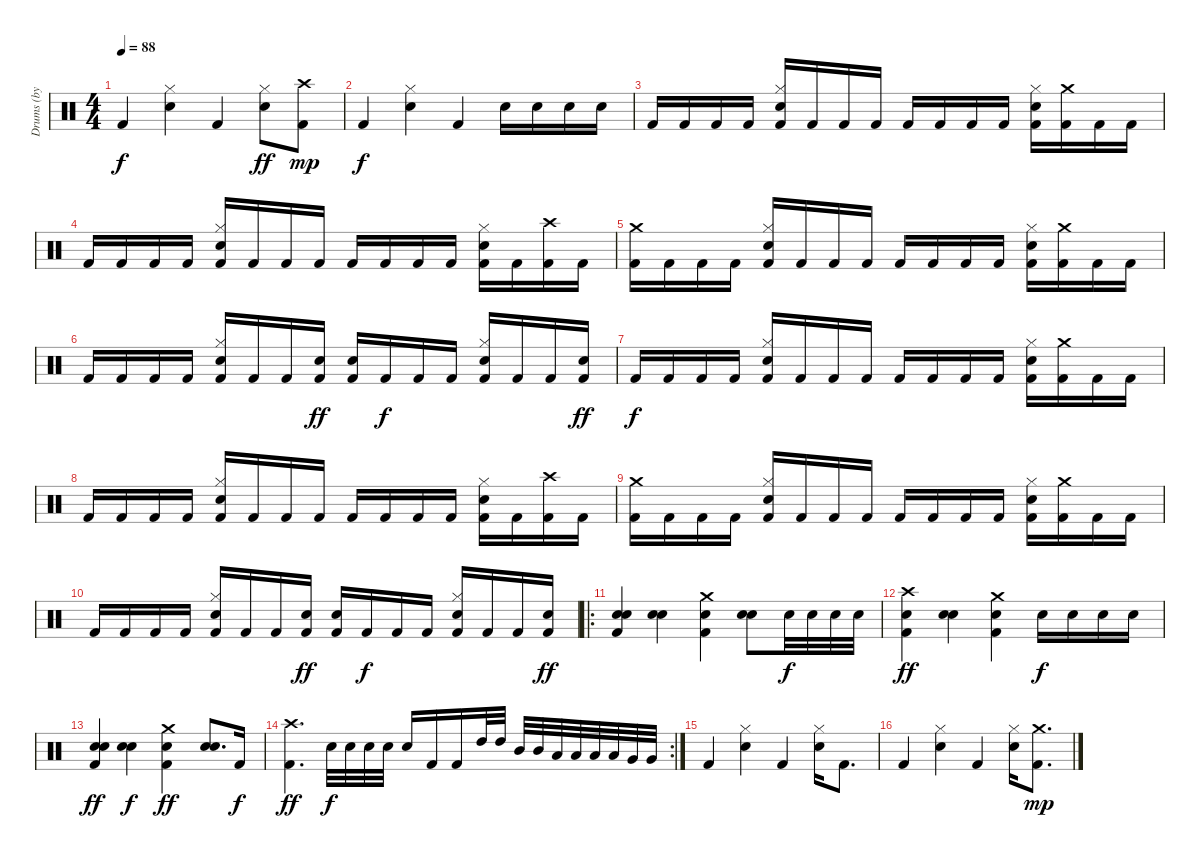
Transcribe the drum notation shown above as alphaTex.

\track ("Drums (by Rim)" "Drums (by ") {instrument percussion}
\staff {score}
\articulation defaults
\ts (4 4)
\tempo 88
\clef neutral
\ks c "Kick (hit) 2".4{dy f}
("Hi-Hat (closed)" "Snare (hit) 2").4 "Kick (hit) 2".4 ("Hi-Hat (closed)" "Snare (hit) 2").8{dy ff} ("Kick (hit) 2" "Crash high (hit)").8{dy mp} |
"Kick (hit) 2".4{dy f} ("Hi-Hat (closed)" "Snare (hit) 2").4 "Kick (hit) 2".4 "Snare (hit) 2".16 "Snare (hit) 2".16 "Snare (hit) 2".16 "Snare (hit) 2".16 |
"Kick (hit) 2".16 "Kick (hit) 2".16 "Kick (hit) 2".16 "Kick (hit) 2".16 ("Kick (hit) 2" "Hi-Hat (closed)" "Snare (hit) 2").16 "Kick (hit) 2".16 "Kick (hit) 2".16 "Kick (hit) 2".16 "Kick (hit) 2".16 "Kick (hit) 2".16 "Kick (hit) 2".16 "Kick (hit) 2".16 ("Kick (hit) 2" "Hi-Hat (closed)" "Snare (hit) 2").16 ("Kick (hit) 2" "Crash medium (hit)").16 "Kick (hit) 2".16 "Kick (hit) 2".16 |
"Kick (hit) 2".16 "Kick (hit) 2".16 "Kick (hit) 2".16 "Kick (hit) 2".16 ("Kick (hit) 2" "Hi-Hat (closed)" "Snare (hit) 2").16 "Kick (hit) 2".16 "Kick (hit) 2".16 "Kick (hit) 2".16 "Kick (hit) 2".16 "Kick (hit) 2".16 "Kick (hit) 2".16 "Kick (hit) 2".16 ("Kick (hit) 2" "Hi-Hat (closed)" "Snare (hit) 2").16 "Kick (hit) 2".16 ("Kick (hit) 2" "Crash high (hit)").16 "Kick (hit) 2".16 |
("Kick (hit) 2" "Crash medium (hit)").16 "Kick (hit) 2".16 "Kick (hit) 2".16 "Kick (hit) 2".16 ("Kick (hit) 2" "Hi-Hat (closed)" "Snare (hit) 2").16 "Kick (hit) 2".16 "Kick (hit) 2".16 "Kick (hit) 2".16 "Kick (hit) 2".16 "Kick (hit) 2".16 "Kick (hit) 2".16 "Kick (hit) 2".16 ("Kick (hit) 2" "Hi-Hat (closed)" "Snare (hit) 2").16 ("Kick (hit) 2" "Crash medium (hit)").16 "Kick (hit) 2".16 "Kick (hit) 2".16 |
"Kick (hit) 2".16 "Kick (hit) 2".16 "Kick (hit) 2".16 "Kick (hit) 2".16 ("Kick (hit) 2" "Hi-Hat (closed)" "Snare (hit) 2").16 "Kick (hit) 2".16 "Kick (hit) 2".16 ("Kick (hit) 2" "Snare (hit) 2").16{dy ff} ("Kick (hit) 2" "Snare (hit) 2").16 "Kick (hit) 2".16{dy f} "Kick (hit) 2".16 "Kick (hit) 2".16 ("Kick (hit) 2" "Hi-Hat (closed)" "Snare (hit) 2").16 "Kick (hit) 2".16 "Kick (hit) 2".16 ("Kick (hit) 2" "Snare (hit) 2").16{dy ff} |
"Kick (hit) 2".16{dy f} "Kick (hit) 2".16 "Kick (hit) 2".16 "Kick (hit) 2".16 ("Kick (hit) 2" "Hi-Hat (closed)" "Snare (hit) 2").16 "Kick (hit) 2".16 "Kick (hit) 2".16 "Kick (hit) 2".16 "Kick (hit) 2".16 "Kick (hit) 2".16 "Kick (hit) 2".16 "Kick (hit) 2".16 ("Kick (hit) 2" "Hi-Hat (closed)" "Snare (hit) 2").16 ("Kick (hit) 2" "Crash medium (hit)").16 "Kick (hit) 2".16 "Kick (hit) 2".16 |
"Kick (hit) 2".16 "Kick (hit) 2".16 "Kick (hit) 2".16 "Kick (hit) 2".16 ("Kick (hit) 2" "Hi-Hat (closed)" "Snare (hit) 2").16 "Kick (hit) 2".16 "Kick (hit) 2".16 "Kick (hit) 2".16 "Kick (hit) 2".16 "Kick (hit) 2".16 "Kick (hit) 2".16 "Kick (hit) 2".16 ("Kick (hit) 2" "Hi-Hat (closed)" "Snare (hit) 2").16 "Kick (hit) 2".16 ("Kick (hit) 2" "Crash high (hit)").16 "Kick (hit) 2".16 |
("Kick (hit) 2" "Crash medium (hit)").16 "Kick (hit) 2".16 "Kick (hit) 2".16 "Kick (hit) 2".16 ("Kick (hit) 2" "Hi-Hat (closed)" "Snare (hit) 2").16 "Kick (hit) 2".16 "Kick (hit) 2".16 "Kick (hit) 2".16 "Kick (hit) 2".16 "Kick (hit) 2".16 "Kick (hit) 2".16 "Kick (hit) 2".16 ("Kick (hit) 2" "Hi-Hat (closed)" "Snare (hit) 2").16 ("Kick (hit) 2" "Crash medium (hit)").16 "Kick (hit) 2".16 "Kick (hit) 2".16 |
"Kick (hit) 2".16 "Kick (hit) 2".16 "Kick (hit) 2".16 "Kick (hit) 2".16 ("Kick (hit) 2" "Hi-Hat (closed)" "Snare (hit) 2").16 "Kick (hit) 2".16 "Kick (hit) 2".16 ("Kick (hit) 2" "Snare (hit) 2").16{dy ff} ("Kick (hit) 2" "Snare (hit) 2").16 "Kick (hit) 2".16{dy f} "Kick (hit) 2".16 "Kick (hit) 2".16 ("Kick (hit) 2" "Hi-Hat (closed)" "Snare (hit) 2").16 "Kick (hit) 2".16 "Kick (hit) 2".16 ("Kick (hit) 2" "Snare (hit) 2").16{dy ff} |
\ro
("Kick (hit) 2" "Snare (hit) 2" "Snare (hit) 2").4 ("Snare (hit) 2" "Snare (hit) 2").4 ("Kick (hit) 2" "Snare (hit) 2" "Crash medium (hit)").4 ("Snare (hit) 2" "Snare (hit) 2").8 "Snare (hit) 2".32{dy f} "Snare (hit) 2".32 "Snare (hit) 2".32 "Snare (hit) 2".32 |
("Kick (hit) 2" "Snare (hit) 2" "Crash high (hit)").4{dy ff} ("Snare (hit) 2" "Snare (hit) 2").4 ("Kick (hit) 2" "Snare (hit) 2" "Crash medium (hit)").4 "Snare (hit) 2".16{dy f} "Snare (hit) 2".16 "Snare (hit) 2".16 "Snare (hit) 2".16 |
("Kick (hit) 2" "Snare (hit) 2" "Snare (hit) 2").4{dy ff} ("Snare (hit) 2" "Snare (hit) 2").4{dy f} ("Kick (hit) 2" "Snare (hit) 2" "Crash medium (hit)").4{dy ff} ("Snare (hit) 2" "Snare (hit) 2").8{d} "Kick (hit) 2".16{dy f} |
\rc 2
("Kick (hit) 2" "Crash high (hit)").4{d dy ff} "Snare (hit) 2".32{dy f} "Snare (hit) 2".32 "Snare (hit) 2".32 "Snare (hit) 2".32 "Snare (hit) 2".16 "Kick (hit) 2".16 "Kick (hit) 2".16 "High Tom (hit)".32 "High Tom (hit)".32 "Mid Tom (hit)".32 "Mid Tom (hit)".32 "Low Tom (hit)".32 "Low Tom (hit)".32 "Low Tom (hit)".32 "Low Tom (hit)".32 "Very Low Tom (hit)".32 "Very Low Tom (hit)".32 |
"Kick (hit) 2".4 ("Hi-Hat (closed)" "Snare (hit) 2").4 "Kick (hit) 2".4 ("Hi-Hat (closed)" "Snare (hit) 2").16 "Kick (hit) 2".8{d} |
"Kick (hit) 2".4 ("Hi-Hat (closed)" "Snare (hit) 2").4 "Kick (hit) 2".4 ("Hi-Hat (closed)" "Snare (hit) 2").16 ("Kick (hit) 2" "Crash medium (hit)").8{d dy mp}
